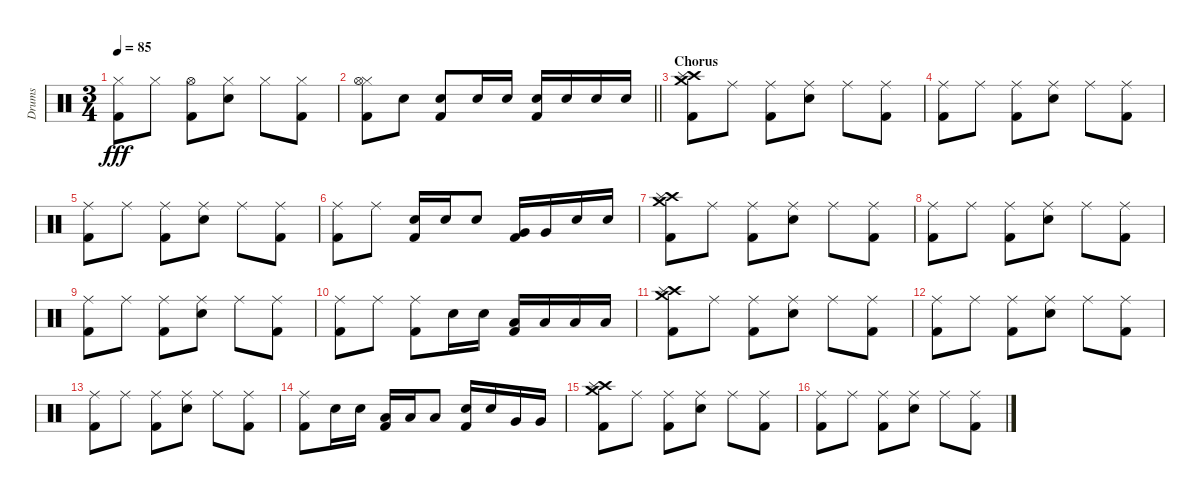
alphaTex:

\track ("Drums" "Drums") {instrument percussion}
\staff {score}
\articulation defaults
\ts (3 4)
\tempo 85
\clef neutral
\ks c
("Hi-Hat (closed)" "Kick (hit) 2").8{dy fff} "Hi-Hat (closed)".8 ("Hi-Hat (open)" "Kick (hit) 2").8 ("Hi-Hat (closed)" "Electric Snare (hit)").8 "Hi-Hat (closed)".8 ("Hi-Hat (closed)" "Kick (hit) 2").8 |
\barLineRight lightlight
("Hi-Hat (closed)" "Hi-Hat (open)" "Kick (hit) 2").8 "Electric Snare (hit)".8 ("Electric Snare (hit)" "Kick (hit) 2").8 "Electric Snare (hit)".16 "Electric Snare (hit)".16 ("Electric Snare (hit)" "Kick (hit) 2").16 "Electric Snare (hit)".16 "Electric Snare (hit)".16 "Electric Snare (hit)".16 |
\section ("" "Chorus")
("Crash high (hit)" "Crash medium (hit)" "Splash (hit)" "Kick (hit) 2").8 "Ride (middle)".8 ("Ride (middle)" "Kick (hit) 2").8 ("Ride (middle)" "Electric Snare (hit)").8 "Ride (middle)".8 ("Ride (middle)" "Kick (hit) 2").8 |
("Ride (middle)" "Kick (hit) 2").8 "Ride (middle)".8 ("Ride (middle)" "Kick (hit) 2").8 ("Ride (middle)" "Electric Snare (hit)").8 "Ride (middle)".8 ("Ride (middle)" "Kick (hit) 2").8 |
("Ride (middle)" "Kick (hit) 2").8 "Ride (middle)".8 ("Ride (middle)" "Kick (hit) 2").8 ("Ride (middle)" "Electric Snare (hit)").8 "Ride (middle)".8 ("Ride (middle)" "Kick (hit) 2").8 |
("Ride (middle)" "Kick (hit) 2").8 "Ride (middle)".8 ("Electric Snare (hit)" "Kick (hit) 2").16 "Electric Snare (hit)".16 "Electric Snare (hit)".8 ("Very Low Tom (hit)" "Kick (hit) 2").16 "Very Low Tom (hit)".16 "Electric Snare (hit)".16 "Electric Snare (hit)".16 |
("Crash high (hit)" "Crash medium (hit)" "Splash (hit)" "Kick (hit) 2").8 "Ride (middle)".8 ("Ride (middle)" "Kick (hit) 2").8 ("Ride (middle)" "Electric Snare (hit)").8 "Ride (middle)".8 ("Ride (middle)" "Kick (hit) 2").8 |
("Ride (middle)" "Kick (hit) 2").8 "Ride (middle)".8 ("Ride (middle)" "Kick (hit) 2").8 ("Ride (middle)" "Electric Snare (hit)").8 "Ride (middle)".8 ("Ride (middle)" "Kick (hit) 2").8 |
("Ride (middle)" "Kick (hit) 2").8 "Ride (middle)".8 ("Ride (middle)" "Kick (hit) 2").8 ("Ride (middle)" "Electric Snare (hit)").8 "Ride (middle)".8 ("Ride (middle)" "Kick (hit) 2").8 |
("Ride (middle)" "Kick (hit) 2").8 "Ride (middle)".8 ("Ride (middle)" "Kick (hit) 2").8 "Electric Snare (hit)".16 "Electric Snare (hit)".16 ("Low Tom (hit)" "Kick (hit) 2").16 "Low Tom (hit)".16 "Low Tom (hit)".16 "Low Tom (hit)".16 |
("Crash high (hit)" "Crash medium (hit)" "Splash (hit)" "Kick (hit) 2").8 "Ride (middle)".8 ("Ride (middle)" "Kick (hit) 2").8 ("Ride (middle)" "Electric Snare (hit)").8 "Ride (middle)".8 ("Ride (middle)" "Kick (hit) 2").8 |
("Ride (middle)" "Kick (hit) 2").8 "Ride (middle)".8 ("Ride (middle)" "Kick (hit) 2").8 ("Ride (middle)" "Electric Snare (hit)").8 "Ride (middle)".8 ("Ride (middle)" "Kick (hit) 2").8 |
("Ride (middle)" "Kick (hit) 2").8 "Ride (middle)".8 ("Ride (middle)" "Kick (hit) 2").8 ("Ride (middle)" "Electric Snare (hit)").8 "Ride (middle)".8 ("Ride (middle)" "Kick (hit) 2").8 |
("Ride (middle)" "Kick (hit) 2").8 "Electric Snare (hit)".16 "Electric Snare (hit)".16 ("Low Tom (hit)" "Kick (hit) 2").16 "Low Tom (hit)".16 "Low Tom (hit)".8 ("Electric Snare (hit)" "Kick (hit) 2").16 "Electric Snare (hit)".16 "Very Low Tom (hit)".16 "Very Low Tom (hit)".16 |
("Crash high (hit)" "Crash medium (hit)" "Splash (hit)" "Kick (hit) 2").8 "Ride (middle)".8 ("Ride (middle)" "Kick (hit) 2").8 ("Ride (middle)" "Electric Snare (hit)").8 "Ride (middle)".8 ("Ride (middle)" "Kick (hit) 2").8 |
("Ride (middle)" "Kick (hit) 2").8 "Ride (middle)".8 ("Ride (middle)" "Kick (hit) 2").8 ("Ride (middle)" "Electric Snare (hit)").8 "Ride (middle)".8 ("Ride (middle)" "Kick (hit) 2").8
